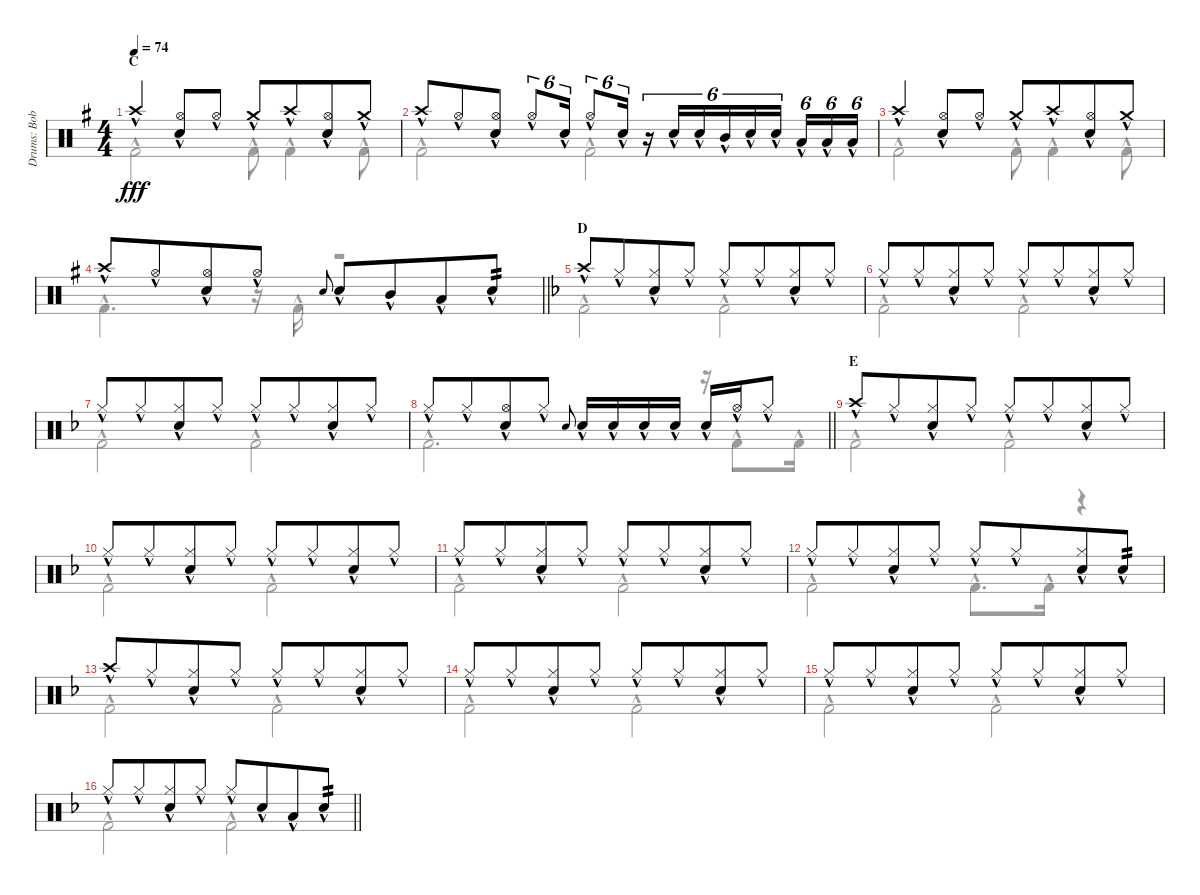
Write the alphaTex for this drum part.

\track ("Drums: Bobby" "Drums: Bob") {instrument percussion}
\staff {score}
\articulation defaults
\voice
\ts (4 4)
\section ("" "C")
\tempo 74
\clef neutral
\ks g "Crash high (hit)"{hac}.4{dy fff}
("Hi-Hat (open)"{hac} "Snare (hit) 2"{hac}).8 "Hi-Hat (open)"{hac}.8 "Crash medium (hit)"{hac}.8 "Crash high (hit)"{hac}.8{beam merge} ("Hi-Hat (open)"{hac} "Snare (hit) 2"{hac}).8 "Crash medium (hit)"{hac}.8 |
"Crash high (hit)"{hac}.8 "Hi-Hat (open)"{hac}.8{beam merge} ("Hi-Hat (open)"{hac} "Snare (hit) 2"{hac}).8 "Hi-Hat (open)"{hac}.8{tu (6 4)} "Snare (hit) 2"{hac}.16{tu (6 4)} "Hi-Hat (open)"{hac}.8{tu (6 4)} "Snare (hit) 2"{hac}.16{tu (6 4)} r.16{tu (6 4)} "Snare (hit) 2"{hac}.16{tu (6 4)} "Snare (hit) 2"{hac}.16{tu (6 4)} "Mid Tom (hit)"{hac}.16{tu (6 4)} "Electric Snare (hit)"{hac}.16{tu (6 4)} "Electric Snare (hit)"{hac}.16{tu (6 4) beam splitsecondary} "Low Tom (hit)"{hac}.16{tu (6 4)} "Low Tom (hit)"{hac}.16{tu (6 4)} "Low Tom (hit)"{hac}.16{tu (6 4)} |
"Crash high (hit)"{hac}.4 ("Hi-Hat (open)"{hac} "Snare (hit) 2"{hac}).8 "Hi-Hat (open)"{hac}.8 "Crash medium (hit)"{hac}.8 "Crash high (hit)"{hac}.8{beam merge} ("Hi-Hat (open)"{hac} "Snare (hit) 2"{hac}).8 "Crash medium (hit)"{hac}.8 |
\barLineRight lightlight "Crash high (hit)"{hac}.8 "Hi-Hat (open)"{hac}.8{beam merge}
("Hi-Hat (open)"{hac} "Snare (hit) 2"{hac}).8 "Hi-Hat (open)"{hac}.8 "Electric Snare (hit)".8{gr onbeat} "Snare (hit) 2"{hac}.8 "Mid Tom (hit)"{hac}.8{beam merge} "Low Tom (hit)"{hac}.8 "Electric Snare (hit)"{hac}.8{tp 2} |
\section ("" "D")
\ks f "Crash high (hit)"{hac}.8 "Hi-Hat (closed)"{hac}.8{beam merge}
("Hi-Hat (closed)"{hac} "Snare (hit) 2"{hac}).8 "Hi-Hat (closed)"{hac}.8 "Hi-Hat (closed)"{hac}.8 "Hi-Hat (closed)"{hac}.8{beam merge} ("Hi-Hat (closed)"{hac} "Snare (hit) 2"{hac}).8 "Hi-Hat (closed)"{hac}.8 |
"Hi-Hat (closed)"{hac}.8 "Hi-Hat (closed)"{hac}.8{beam merge} ("Hi-Hat (closed)"{hac} "Snare (hit) 2"{hac}).8 "Hi-Hat (closed)"{hac}.8 "Hi-Hat (closed)"{hac}.8 "Hi-Hat (closed)"{hac}.8{beam merge} ("Hi-Hat (closed)"{hac} "Snare (hit) 2"{hac}).8 "Hi-Hat (closed)"{hac}.8 |
"Hi-Hat (closed)"{hac}.8 "Hi-Hat (closed)"{hac}.8{beam merge} ("Hi-Hat (closed)"{hac} "Snare (hit) 2"{hac}).8 "Hi-Hat (closed)"{hac}.8 "Hi-Hat (closed)"{hac}.8 "Hi-Hat (closed)"{hac}.8{beam merge} ("Hi-Hat (closed)"{hac} "Snare (hit) 2"{hac}).8 "Hi-Hat (closed)"{hac}.8 |
\barLineRight lightlight "Hi-Hat (closed)"{hac}.8 "Hi-Hat (closed)"{hac}.8{beam merge}
("Hi-Hat (open)"{hac} "Snare (hit) 2"{hac}).8 "Hi-Hat (closed)"{hac}.8 "Electric Snare (hit)".8{gr onbeat} "Snare (hit) 2"{hac}.16 "Snare (hit) 2"{hac}.16{beam merge} "Snare (hit) 2"{hac}.16 "Snare (hit) 2"{hac}.16 "Snare (hit) 2"{hac}.16 "Hi-Hat (open)"{hac}.16 "Hi-Hat (closed)"{hac}.8 |
\section ("" "E")
"Crash high (hit)"{hac}.8 "Hi-Hat (closed)"{hac}.8{beam merge} ("Hi-Hat (closed)"{hac} "Snare (hit) 2"{hac}).8 "Hi-Hat (closed)"{hac}.8 "Hi-Hat (closed)"{hac}.8 "Hi-Hat (closed)"{hac}.8{beam merge} ("Hi-Hat (closed)"{hac} "Snare (hit) 2"{hac}).8 "Hi-Hat (closed)"{hac}.8 |
"Hi-Hat (closed)"{hac}.8 "Hi-Hat (closed)"{hac}.8{beam merge} ("Hi-Hat (closed)"{hac} "Snare (hit) 2"{hac}).8 "Hi-Hat (closed)"{hac}.8 "Hi-Hat (closed)"{hac}.8 "Hi-Hat (closed)"{hac}.8{beam merge} ("Hi-Hat (closed)"{hac} "Snare (hit) 2"{hac}).8 "Hi-Hat (closed)"{hac}.8 |
"Hi-Hat (closed)"{hac}.8 "Hi-Hat (closed)"{hac}.8{beam merge} ("Hi-Hat (closed)"{hac} "Snare (hit) 2"{hac}).8 "Hi-Hat (closed)"{hac}.8 "Hi-Hat (closed)"{hac}.8 "Hi-Hat (closed)"{hac}.8{beam merge} ("Hi-Hat (closed)"{hac} "Snare (hit) 2"{hac}).8 "Hi-Hat (closed)"{hac}.8 |
"Hi-Hat (closed)"{hac}.8 "Hi-Hat (closed)"{hac}.8{beam merge} ("Hi-Hat (closed)"{hac} "Snare (hit) 2"{hac}).8 "Hi-Hat (closed)"{hac}.8 "Hi-Hat (closed)"{hac}.8 "Hi-Hat (closed)"{hac}.8{beam merge} ("Hi-Hat (closed)"{hac} "Snare (hit) 2"{hac}).8 "Electric Snare (hit)"{hac}.8{tp 2} |
"Crash high (hit)"{hac}.8 "Hi-Hat (closed)"{hac}.8{beam merge} ("Hi-Hat (closed)"{hac} "Snare (hit) 2"{hac}).8 "Hi-Hat (closed)"{hac}.8 "Hi-Hat (closed)"{hac}.8 "Hi-Hat (closed)"{hac}.8{beam merge} ("Hi-Hat (closed)"{hac} "Snare (hit) 2"{hac}).8 "Hi-Hat (closed)"{hac}.8 |
"Hi-Hat (closed)"{hac}.8 "Hi-Hat (closed)"{hac}.8{beam merge} ("Hi-Hat (closed)"{hac} "Snare (hit) 2"{hac}).8 "Hi-Hat (closed)"{hac}.8 "Hi-Hat (closed)"{hac}.8 "Hi-Hat (closed)"{hac}.8{beam merge} ("Hi-Hat (closed)"{hac} "Snare (hit) 2"{hac}).8 "Hi-Hat (closed)"{hac}.8 |
"Hi-Hat (closed)"{hac}.8 "Hi-Hat (closed)"{hac}.8{beam merge} ("Hi-Hat (closed)"{hac} "Snare (hit) 2"{hac}).8 "Hi-Hat (closed)"{hac}.8 "Hi-Hat (closed)"{hac}.8 "Hi-Hat (closed)"{hac}.8{beam merge} ("Hi-Hat (closed)"{hac} "Snare (hit) 2"{hac}).8 "Hi-Hat (closed)"{hac}.8 |
\barLineRight lightlight "Hi-Hat (closed)"{hac}.8 "Hi-Hat (closed)"{hac}.8{beam merge}
("Hi-Hat (closed)"{hac} "Snare (hit) 2"{hac}).8 "Hi-Hat (closed)"{hac}.8 "Hi-Hat (closed)"{hac}.8 "Snare (hit) 2"{hac}.8{beam merge} "Low Tom (hit)"{hac}.8 "Electric Snare (hit)"{hac}.8{tp 2}
\voice
\clef neutral
\ottava regular
\simile none
\ks g "Kick (hit) 2"{hac}.2{dy fff} "Kick (hit) 2"{hac}.8 "Kick (hit) 2"{hac}.4 "Kick (hit) 2"{hac}.8
|
"Kick (hit) 2"{hac}.2 "Kick (hit) 2"{hac}.2 |
"Kick (hit) 2"{hac}.2 "Kick (hit) 2"{hac}.8 "Kick (hit) 2"{hac}.4 "Kick (hit) 2"{hac}.8 |
\barLineRight lightlight "Kick (hit) 2"{hac}.4{d}
r.16 "Kick (hit) 2"{hac}.16 r.2 |
\ks f "Kick (hit) 2"{hac}.2 "Kick (hit) 2"{hac}.2
|
"Kick (hit) 2"{hac}.2 "Kick (hit) 2"{hac}.2 |
"Kick (hit) 2"{hac}.2 "Kick (hit) 2"{hac}.2 |
\barLineRight lightlight "Kick (hit) 2"{hac}.2{d}
r.16 "Kick (hit) 2"{hac}.8 "Kick (hit) 2"{hac}.16 |
"Kick (hit) 2"{hac}.2 "Kick (hit) 2"{hac}.2 |
"Kick (hit) 2"{hac}.2 "Kick (hit) 2"{hac}.2 |
"Kick (hit) 2"{hac}.2 "Kick (hit) 2"{hac}.2 |
"Kick (hit) 2"{hac}.2 "Kick (hit) 2"{hac}.8{d} "Kick (hit) 2"{hac}.16 r.4 |
"Kick (hit) 2"{hac}.2 "Kick (hit) 2"{hac}.2 |
"Kick (hit) 2"{hac}.2 "Kick (hit) 2"{hac}.2 |
"Kick (hit) 2"{hac}.2 "Kick (hit) 2"{hac}.2 |
\barLineRight lightlight "Kick (hit) 2"{hac}.2 "Kick (hit) 2"{hac}.2
